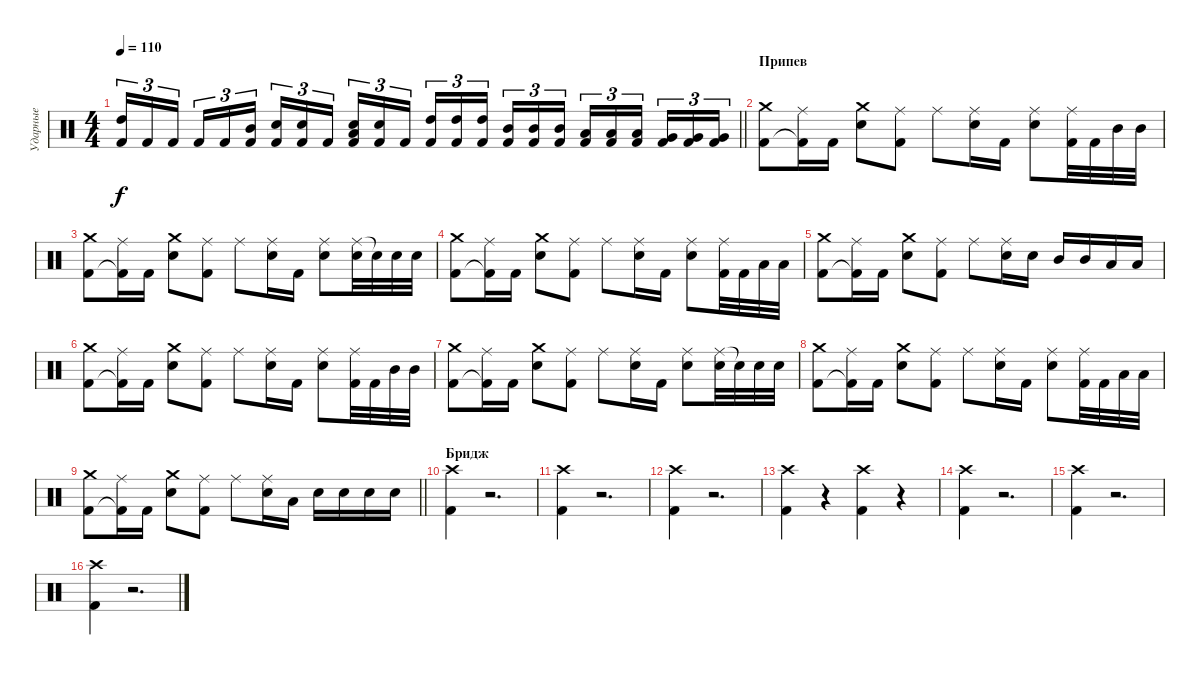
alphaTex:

\track ("Ударные" "Ударные") {instrument percussion}
\staff {score}
\articulation defaults
\ts (4 4)
\tempo 110
\clef neutral
\barLineRight lightlight
\ks c
("High Tom (hit)" "Kick (hit) 2").16{tu (3 2) dy f} "Kick (hit) 2".16{tu (3 2)} "Kick (hit) 2".16{tu (3 2) beam splitsecondary} "Kick (hit) 2".16{tu (3 2)} "Kick (hit) 2".16{tu (3 2)} ("Mid Tom (hit)" "Kick (hit) 2").16{tu (3 2)} ("Snare (hit) 2" "Kick (hit) 2").16{tu (3 2)} ("Snare (hit) 2" "Kick (hit) 2").16{tu (3 2)} "Kick (hit) 2".16{tu (3 2) beam splitsecondary} ("Low Tom (hit)" "Snare (hit) 2" "Kick (hit) 2").16{tu (3 2)} ("Snare (hit) 2" "Kick (hit) 2").16{tu (3 2)} "Kick (hit) 2".16{tu (3 2)} ("High Tom (hit)" "Kick (hit) 2").16{tu (3 2)} ("High Tom (hit)" "Kick (hit) 2").16{tu (3 2)} ("High Tom (hit)" "Kick (hit) 2").16{tu (3 2) beam splitsecondary} ("Mid Tom (hit)" "Kick (hit) 2").16{tu (3 2)} ("Mid Tom (hit)" "Kick (hit) 2").16{tu (3 2)} ("Mid Tom (hit)" "Kick (hit) 2").16{tu (3 2)} ("Low Tom (hit)" "Kick (hit) 2").16{tu (3 2)} ("Low Tom (hit)" "Kick (hit) 2").16{tu (3 2)} ("Low Tom (hit)" "Kick (hit) 2").16{tu (3 2) beam splitsecondary} ("Very Low Tom (hit)" "Kick (hit) 2").16{tu (3 2)} ("Very Low Tom (hit)" "Kick (hit) 2").16{tu (3 2)} ("Very Low Tom (hit)" "Kick (hit) 2").16{tu (3 2)} |
\section ("" "Припев")
("Crash medium (hit)" "Kick (hit) 2").8 ("Ride (middle)" "Kick (hit) 2"{t}).16 "Kick (hit) 2".16 ("Crash medium (hit)" "Snare (hit) 2").8 ("Ride (middle)" "Kick (hit) 2").8 "Ride (middle)".8 ("Ride (middle)" "Snare (hit) 2").16 "Kick (hit) 2".16 ("Ride (middle)" "Snare (hit) 2").8 ("Ride (middle)" "Kick (hit) 2").32 "Kick (hit) 2".32 "Mid Tom (hit)".32 "Mid Tom (hit)".32 |
("Crash medium (hit)" "Kick (hit) 2").8 ("Ride (middle)" "Kick (hit) 2"{t}).16 "Kick (hit) 2".16 ("Crash medium (hit)" "Snare (hit) 2").8 ("Ride (middle)" "Kick (hit) 2").8 "Ride (middle)".8 ("Ride (middle)" "Snare (hit) 2").16 "Kick (hit) 2".16 ("Ride (middle)" "Snare (hit) 2").8 ("Ride (middle)" "Snare (hit) 2").32 "Snare (hit) 2"{t}.32 "Snare (hit) 2".32 "Snare (hit) 2".32 |
("Crash medium (hit)" "Kick (hit) 2").8 ("Ride (middle)" "Kick (hit) 2"{t}).16 "Kick (hit) 2".16 ("Crash medium (hit)" "Snare (hit) 2").8 ("Ride (middle)" "Kick (hit) 2").8 "Ride (middle)".8 ("Ride (middle)" "Snare (hit) 2").16 "Kick (hit) 2".16 ("Ride (middle)" "Snare (hit) 2").8 ("Ride (middle)" "Kick (hit) 2").32 "Kick (hit) 2".32 "Low Tom (hit)".32 "Low Tom (hit)".32 |
("Crash medium (hit)" "Kick (hit) 2").8 ("Ride (middle)" "Kick (hit) 2"{t}).16 "Kick (hit) 2".16 ("Crash medium (hit)" "Snare (hit) 2").8 ("Ride (middle)" "Kick (hit) 2").8 "Ride (middle)".8 ("Ride (middle)" "Snare (hit) 2").16 "Snare (hit) 2".16 "Mid Tom (hit)".16 "Mid Tom (hit)".16 "Low Tom (hit)".16 "Low Tom (hit)".16 |
("Crash medium (hit)" "Kick (hit) 2").8 ("Ride (middle)" "Kick (hit) 2"{t}).16 "Kick (hit) 2".16 ("Crash medium (hit)" "Snare (hit) 2").8 ("Ride (middle)" "Kick (hit) 2").8 "Ride (middle)".8 ("Ride (middle)" "Snare (hit) 2").16 "Kick (hit) 2".16 ("Ride (middle)" "Snare (hit) 2").8 ("Ride (middle)" "Kick (hit) 2").32 "Kick (hit) 2".32 "Mid Tom (hit)".32 "Mid Tom (hit)".32 |
("Crash medium (hit)" "Kick (hit) 2").8 ("Ride (middle)" "Kick (hit) 2"{t}).16 "Kick (hit) 2".16 ("Crash medium (hit)" "Snare (hit) 2").8 ("Ride (middle)" "Kick (hit) 2").8 "Ride (middle)".8 ("Ride (middle)" "Snare (hit) 2").16 "Kick (hit) 2".16 ("Ride (middle)" "Snare (hit) 2").8 ("Ride (middle)" "Snare (hit) 2").32 "Snare (hit) 2"{t}.32 "Snare (hit) 2".32 "Snare (hit) 2".32 |
("Crash medium (hit)" "Kick (hit) 2").8 ("Ride (middle)" "Kick (hit) 2"{t}).16 "Kick (hit) 2".16 ("Crash medium (hit)" "Snare (hit) 2").8 ("Ride (middle)" "Kick (hit) 2").8 "Ride (middle)".8 ("Ride (middle)" "Snare (hit) 2").16 "Kick (hit) 2".16 ("Ride (middle)" "Snare (hit) 2").8 ("Ride (middle)" "Kick (hit) 2").32 "Kick (hit) 2".32 "Low Tom (hit)".32 "Low Tom (hit)".32 |
\barLineRight lightlight
("Crash medium (hit)" "Kick (hit) 2").8 ("Ride (middle)" "Kick (hit) 2"{t}).16 "Kick (hit) 2".16 ("Crash medium (hit)" "Snare (hit) 2").8 ("Ride (middle)" "Kick (hit) 2").8 "Ride (middle)".8 ("Ride (middle)" "Snare (hit) 2").16 "Low Tom (hit)".16 "Snare (hit) 2".16 "Snare (hit) 2".16 "Snare (hit) 2".16 "Snare (hit) 2".16 |
\section ("" "Бридж")
("Crash high (hit)" "Kick (hit) 2").4 r.2{d} |
("Crash high (hit)" "Kick (hit) 2").4 r.2{d} |
("Crash high (hit)" "Kick (hit) 2").4 r.2{d} |
("Crash high (hit)" "Kick (hit) 2").4 r.4 ("Crash high (hit)" "Kick (hit) 2").4 r.4 |
("Crash high (hit)" "Kick (hit) 2").4 r.2{d} |
("Crash high (hit)" "Kick (hit) 2").4 r.2{d} |
("Crash high (hit)" "Kick (hit) 2").4 r.2{d}
